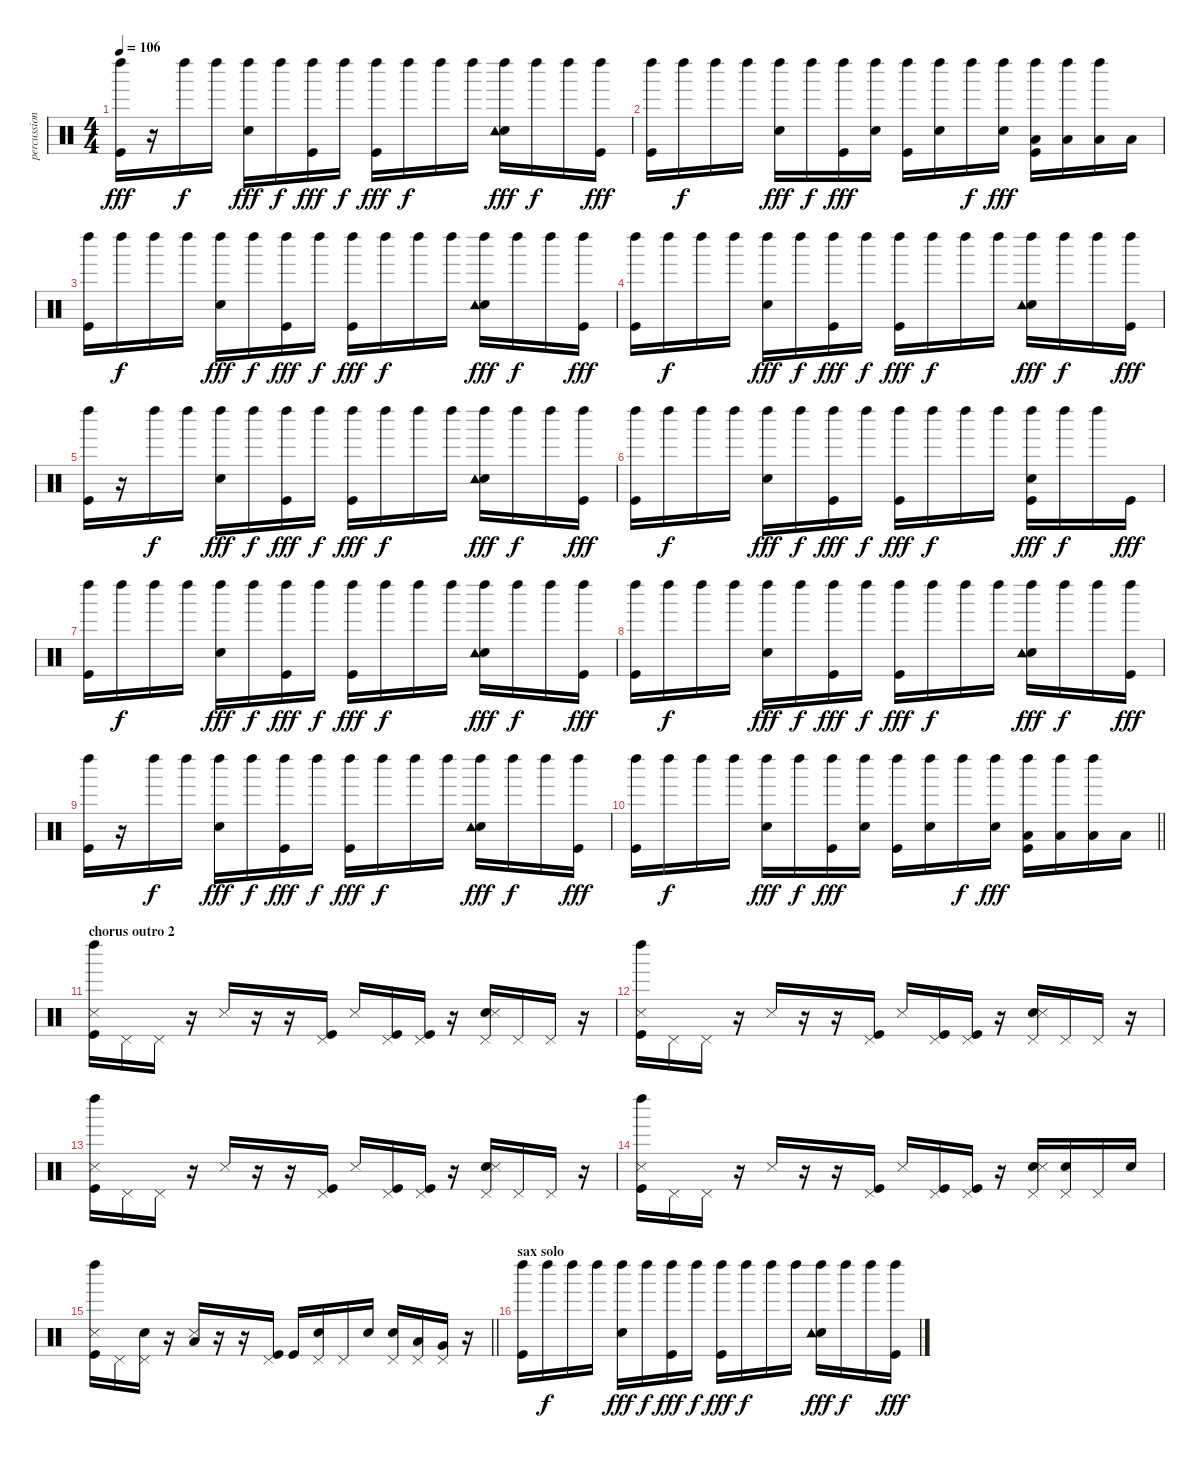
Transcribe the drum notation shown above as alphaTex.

\track ("percussions" "percussion") {instrument percussion}
\staff {score}
\articulation defaults
\ts (4 4)
\tempo 106
\clef neutral
\ks c
("Left Maraca (hit)" "Kick (hit)").16{dy fff} r.16 "Left Maraca (hit)".16{dy f} "Left Maraca (hit)".16 ("Left Maraca (hit)" "Snare (hit) 2").16{dy fff} "Left Maraca (hit)".16{dy f} ("Left Maraca (hit)" "Kick (hit)").16{dy fff} "Left Maraca (hit)".16{dy f} ("Left Maraca (hit)" "Kick (hit)").16{dy fff} "Left Maraca (hit)".16{dy f} "Left Maraca (hit)".16 "Left Maraca (hit)".16 ("Left Maraca (hit)" "Snare (hit) 2" "Tambourine (hit)").16{dy fff} "Left Maraca (hit)".16{dy f} "Left Maraca (hit)".16 ("Left Maraca (hit)" "Kick (hit)").16{dy fff} |
("Left Maraca (hit)" "Kick (hit)").16 "Left Maraca (hit)".16{dy f} "Left Maraca (hit)".16 "Left Maraca (hit)".16 ("Left Maraca (hit)" "Snare (hit) 2").16{dy fff} "Left Maraca (hit)".16{dy f} ("Left Maraca (hit)" "Kick (hit)").16{dy fff} ("Left Maraca (hit)" "Snare (hit) 2").16 ("Left Maraca (hit)" "Kick (hit)").16 ("Left Maraca (hit)" "Snare (hit) 2").16 "Left Maraca (hit)".16{dy f} ("Left Maraca (hit)" "Snare (hit) 2").16{dy fff} ("Left Maraca (hit)" "Low Tom (hit)" "Kick (hit)").16 ("Left Maraca (hit)" "Low Tom (hit)").16 ("Left Maraca (hit)" "Low Floor Tom (hit)").16 "Low Floor Tom (hit)".16 |
("Left Maraca (hit)" "Kick (hit)").16 "Left Maraca (hit)".16{dy f} "Left Maraca (hit)".16 "Left Maraca (hit)".16 ("Left Maraca (hit)" "Snare (hit) 2").16{dy fff} "Left Maraca (hit)".16{dy f} ("Left Maraca (hit)" "Kick (hit)").16{dy fff} "Left Maraca (hit)".16{dy f} ("Left Maraca (hit)" "Kick (hit)").16{dy fff} "Left Maraca (hit)".16{dy f} "Left Maraca (hit)".16 "Left Maraca (hit)".16 ("Left Maraca (hit)" "Snare (hit) 2" "Tambourine (hit)").16{dy fff} "Left Maraca (hit)".16{dy f} "Left Maraca (hit)".16 ("Left Maraca (hit)" "Kick (hit)").16{dy fff} |
("Left Maraca (hit)" "Kick (hit)").16 "Left Maraca (hit)".16{dy f} "Left Maraca (hit)".16 "Left Maraca (hit)".16 ("Left Maraca (hit)" "Snare (hit) 2").16{dy fff} "Left Maraca (hit)".16{dy f} ("Left Maraca (hit)" "Kick (hit)").16{dy fff} "Left Maraca (hit)".16{dy f} ("Left Maraca (hit)" "Kick (hit)").16{dy fff} "Left Maraca (hit)".16{dy f} "Left Maraca (hit)".16 "Left Maraca (hit)".16 ("Left Maraca (hit)" "Snare (hit) 2" "Tambourine (hit)").16{dy fff} "Left Maraca (hit)".16{dy f} "Left Maraca (hit)".16 ("Left Maraca (hit)" "Kick (hit)").16{dy fff} |
("Left Maraca (hit)" "Kick (hit)").16 r.16 "Left Maraca (hit)".16{dy f} "Left Maraca (hit)".16 ("Left Maraca (hit)" "Snare (hit) 2").16{dy fff} "Left Maraca (hit)".16{dy f} ("Left Maraca (hit)" "Kick (hit)").16{dy fff} "Left Maraca (hit)".16{dy f} ("Left Maraca (hit)" "Kick (hit)").16{dy fff} "Left Maraca (hit)".16{dy f} "Left Maraca (hit)".16 "Left Maraca (hit)".16 ("Left Maraca (hit)" "Snare (hit) 2" "Tambourine (hit)").16{dy fff} "Left Maraca (hit)".16{dy f} "Left Maraca (hit)".16 ("Left Maraca (hit)" "Kick (hit)").16{dy fff} |
("Left Maraca (hit)" "Kick (hit)").16 "Left Maraca (hit)".16{dy f} "Left Maraca (hit)".16 "Left Maraca (hit)".16 ("Left Maraca (hit)" "Snare (hit) 2").16{dy fff} "Left Maraca (hit)".16{dy f} ("Left Maraca (hit)" "Kick (hit)").16{dy fff} "Left Maraca (hit)".16{dy f} ("Left Maraca (hit)" "Kick (hit)").16{dy fff} "Left Maraca (hit)".16{dy f} "Left Maraca (hit)".16 "Left Maraca (hit)".16 ("Left Maraca (hit)" "Snare (hit) 2" "Kick (hit)").16{dy fff} "Left Maraca (hit)".16{dy f} "Left Maraca (hit)".16 "Kick (hit)".16{dy fff} |
("Left Maraca (hit)" "Kick (hit)").16 "Left Maraca (hit)".16{dy f} "Left Maraca (hit)".16 "Left Maraca (hit)".16 ("Left Maraca (hit)" "Snare (hit) 2").16{dy fff} "Left Maraca (hit)".16{dy f} ("Left Maraca (hit)" "Kick (hit)").16{dy fff} "Left Maraca (hit)".16{dy f} ("Left Maraca (hit)" "Kick (hit)").16{dy fff} "Left Maraca (hit)".16{dy f} "Left Maraca (hit)".16 "Left Maraca (hit)".16 ("Left Maraca (hit)" "Snare (hit) 2" "Tambourine (hit)").16{dy fff} "Left Maraca (hit)".16{dy f} "Left Maraca (hit)".16 ("Left Maraca (hit)" "Kick (hit)").16{dy fff} |
("Left Maraca (hit)" "Kick (hit)").16 "Left Maraca (hit)".16{dy f} "Left Maraca (hit)".16 "Left Maraca (hit)".16 ("Left Maraca (hit)" "Snare (hit) 2").16{dy fff} "Left Maraca (hit)".16{dy f} ("Left Maraca (hit)" "Kick (hit)").16{dy fff} "Left Maraca (hit)".16{dy f} ("Left Maraca (hit)" "Kick (hit)").16{dy fff} "Left Maraca (hit)".16{dy f} "Left Maraca (hit)".16 "Left Maraca (hit)".16 ("Left Maraca (hit)" "Snare (hit) 2" "Tambourine (hit)").16{dy fff} "Left Maraca (hit)".16{dy f} "Left Maraca (hit)".16 ("Left Maraca (hit)" "Kick (hit)").16{dy fff} |
("Left Maraca (hit)" "Kick (hit)").16 r.16 "Left Maraca (hit)".16{dy f} "Left Maraca (hit)".16 ("Left Maraca (hit)" "Snare (hit) 2").16{dy fff} "Left Maraca (hit)".16{dy f} ("Left Maraca (hit)" "Kick (hit)").16{dy fff} "Left Maraca (hit)".16{dy f} ("Left Maraca (hit)" "Kick (hit)").16{dy fff} "Left Maraca (hit)".16{dy f} "Left Maraca (hit)".16 "Left Maraca (hit)".16 ("Left Maraca (hit)" "Snare (hit) 2" "Tambourine (hit)").16{dy fff} "Left Maraca (hit)".16{dy f} "Left Maraca (hit)".16 ("Left Maraca (hit)" "Kick (hit)").16{dy fff} |
\barLineRight lightlight
("Left Maraca (hit)" "Kick (hit)").16 "Left Maraca (hit)".16{dy f} "Left Maraca (hit)".16 "Left Maraca (hit)".16 ("Left Maraca (hit)" "Snare (hit) 2").16{dy fff} "Left Maraca (hit)".16{dy f} ("Left Maraca (hit)" "Kick (hit)").16{dy fff} ("Left Maraca (hit)" "Snare (hit) 2").16 ("Left Maraca (hit)" "Kick (hit)").16 ("Left Maraca (hit)" "Snare (hit) 2").16 "Left Maraca (hit)".16{dy f} ("Left Maraca (hit)" "Snare (hit) 2").16{dy fff} ("Left Maraca (hit)" "Low Tom (hit)" "Kick (hit)").16 ("Left Maraca (hit)" "Low Tom (hit)").16 ("Left Maraca (hit)" "Low Floor Tom (hit)").16 "Low Floor Tom (hit)".16 |
\section ("" "chorus outro 2")
("Left Maraca (hit)" "Kick (hit)" "Snare (side stick) 3").16 "Pedal Hi-Hat (hit)".16 "Pedal Hi-Hat (hit)".16 r.16 "Snare (side stick) 3".16 r.16 r.16 ("Pedal Hi-Hat (hit)" "Kick (hit)").16 "Snare (side stick) 3".16 ("Pedal Hi-Hat (hit)" "Kick (hit)").16 ("Pedal Hi-Hat (hit)" "Kick (hit)").16 r.16 ("Pedal Hi-Hat (hit)" "Snare (hit) 2" "Snare (side stick) 3").16 "Pedal Hi-Hat (hit)".16 "Pedal Hi-Hat (hit)".16 r.16 |
("Left Maraca (hit)" "Kick (hit)" "Snare (side stick) 3").16 "Pedal Hi-Hat (hit)".16 "Pedal Hi-Hat (hit)".16 r.16 "Snare (side stick) 3".16 r.16 r.16 ("Pedal Hi-Hat (hit)" "Kick (hit)").16 "Snare (side stick) 3".16 ("Pedal Hi-Hat (hit)" "Kick (hit)").16 ("Pedal Hi-Hat (hit)" "Kick (hit)").16 r.16 ("Pedal Hi-Hat (hit)" "Snare (hit) 2" "Snare (side stick) 3").16 "Pedal Hi-Hat (hit)".16 "Pedal Hi-Hat (hit)".16 r.16 |
("Left Maraca (hit)" "Kick (hit)" "Snare (side stick) 3").16 "Pedal Hi-Hat (hit)".16 "Pedal Hi-Hat (hit)".16 r.16 "Snare (side stick) 3".16 r.16 r.16 ("Pedal Hi-Hat (hit)" "Kick (hit)").16 "Snare (side stick) 3".16 ("Pedal Hi-Hat (hit)" "Kick (hit)").16 ("Pedal Hi-Hat (hit)" "Kick (hit)").16 r.16 ("Pedal Hi-Hat (hit)" "Snare (hit) 2" "Snare (side stick) 3").16 "Pedal Hi-Hat (hit)".16 "Pedal Hi-Hat (hit)".16 r.16 |
("Left Maraca (hit)" "Kick (hit)" "Snare (side stick) 3").16 "Pedal Hi-Hat (hit)".16 "Pedal Hi-Hat (hit)".16 r.16 "Snare (side stick) 3".16 r.16 r.16 ("Pedal Hi-Hat (hit)" "Kick (hit)").16 "Snare (side stick) 3".16 ("Pedal Hi-Hat (hit)" "Kick (hit)").16 ("Pedal Hi-Hat (hit)" "Kick (hit)").16 r.16 ("Pedal Hi-Hat (hit)" "Snare (hit) 2" "Snare (side stick) 3").16 ("Pedal Hi-Hat (hit)" "Snare (hit) 2").16 "Pedal Hi-Hat (hit)".16 "Snare (hit) 2".16 |
\barLineRight lightlight
("Left Maraca (hit)" "Kick (hit)" "Snare (side stick) 3").16 "Pedal Hi-Hat (hit)".16 ("Pedal Hi-Hat (hit)" "Snare (hit) 2").16 r.16 ("Low Tom (hit)" "Snare (side stick) 3").16 r.16 r.16 ("Pedal Hi-Hat (hit)" "Kick (hit)").16 "Kick (hit)".16 ("Pedal Hi-Hat (hit)" "Snare (hit) 2").16 "Pedal Hi-Hat (hit)".16 "Snare (hit) 2".16 ("Pedal Hi-Hat (hit)" "Snare (hit) 2").16 ("Pedal Hi-Hat (hit)" "Low Tom (hit)").16 ("Pedal Hi-Hat (hit)" "Very Low Tom (hit)").16 r.16 |
\section ("" "sax solo ")
("Left Maraca (hit)" "Kick (hit)").16 "Left Maraca (hit)".16{dy f} "Left Maraca (hit)".16 "Left Maraca (hit)".16 ("Left Maraca (hit)" "Snare (hit) 2").16{dy fff} "Left Maraca (hit)".16{dy f} ("Left Maraca (hit)" "Kick (hit)").16{dy fff} "Left Maraca (hit)".16{dy f} ("Left Maraca (hit)" "Kick (hit)").16{dy fff} "Left Maraca (hit)".16{dy f} "Left Maraca (hit)".16 "Left Maraca (hit)".16 ("Left Maraca (hit)" "Snare (hit) 2" "Tambourine (hit)").16{dy fff} "Left Maraca (hit)".16{dy f} "Left Maraca (hit)".16 ("Left Maraca (hit)" "Kick (hit)").16{dy fff}
